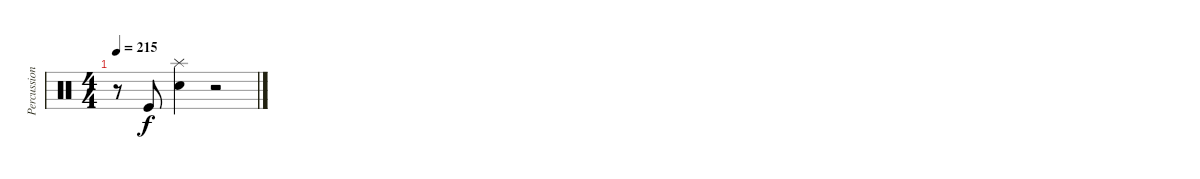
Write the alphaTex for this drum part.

\track ("Percussion" "Percussion") {instrument percussion}
\staff {score}
\articulation defaults
\ts (4 4)
\tempo 215
\clef neutral
\ks c
r.8{dy f} "Kick (hit)".8 ("Splash (hit)" "Electric Snare (hit)").4 r.2
